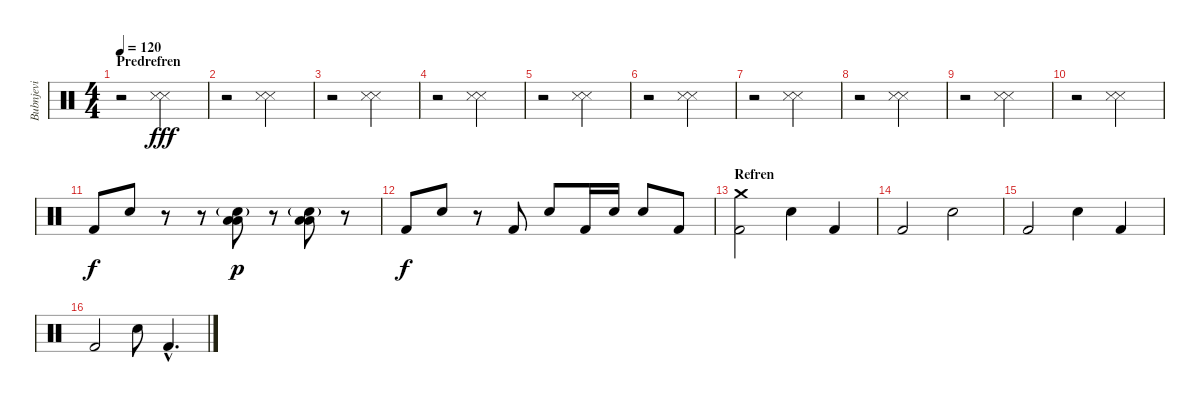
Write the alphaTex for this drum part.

\track ("Bubnjevi" "Bubnjevi") {instrument percussion}
\staff {score}
\articulation defaults
\ts (4 4)
\section ("" "Predrefren")
\tempo 120
\clef neutral
\ks c
r.2{dy p} ("Snare (side stick) 3" "Snare (side stick) 3").2{dy fff} |
r.2 ("Snare (side stick) 3" "Snare (side stick) 3").2 |
r.2 ("Snare (side stick) 3" "Snare (side stick) 3").2 |
r.2 ("Snare (side stick) 3" "Snare (side stick) 3").2 |
r.2 ("Snare (side stick) 3" "Snare (side stick) 3").2 |
r.2 ("Snare (side stick) 3" "Snare (side stick) 3").2 |
r.2 ("Snare (side stick) 3" "Snare (side stick) 3").2 |
r.2 ("Snare (side stick) 3" "Snare (side stick) 3").2 |
r.2 ("Snare (side stick) 3" "Snare (side stick) 3").2 |
r.2 ("Snare (side stick) 3" "Snare (side stick) 3").2 |
"Kick (hit) 2".8{dy f} "Snare (hit) 2".8 r.8 r.8 ("Low Tom (hit)" "Low Tom (hit)" "Snare (hit) 2"{g}).8{dy p} r.8 ("Low Tom (hit)" "Low Tom (hit)" "Snare (hit) 2"{g}).8 r.8 |
"Kick (hit) 2".8{dy f} "Snare (hit) 2".8 r.8 "Kick (hit) 2".8 "Snare (hit) 2".8 "Kick (hit) 2".16 "Snare (hit) 2".16 "Snare (hit) 2".8 "Kick (hit) 2".8 |
\section ("" "Refren")
("Crash medium (hit)" "Kick (hit) 2").2 "Snare (hit) 2".4 "Kick (hit) 2".4 |
"Kick (hit) 2".2 "Snare (hit) 2".2 |
"Kick (hit) 2".2 "Snare (hit) 2".4 "Kick (hit) 2".4 |
"Kick (hit) 2".2 "Snare (hit) 2".8 "Kick (hit) 2"{hac}.4{d}
